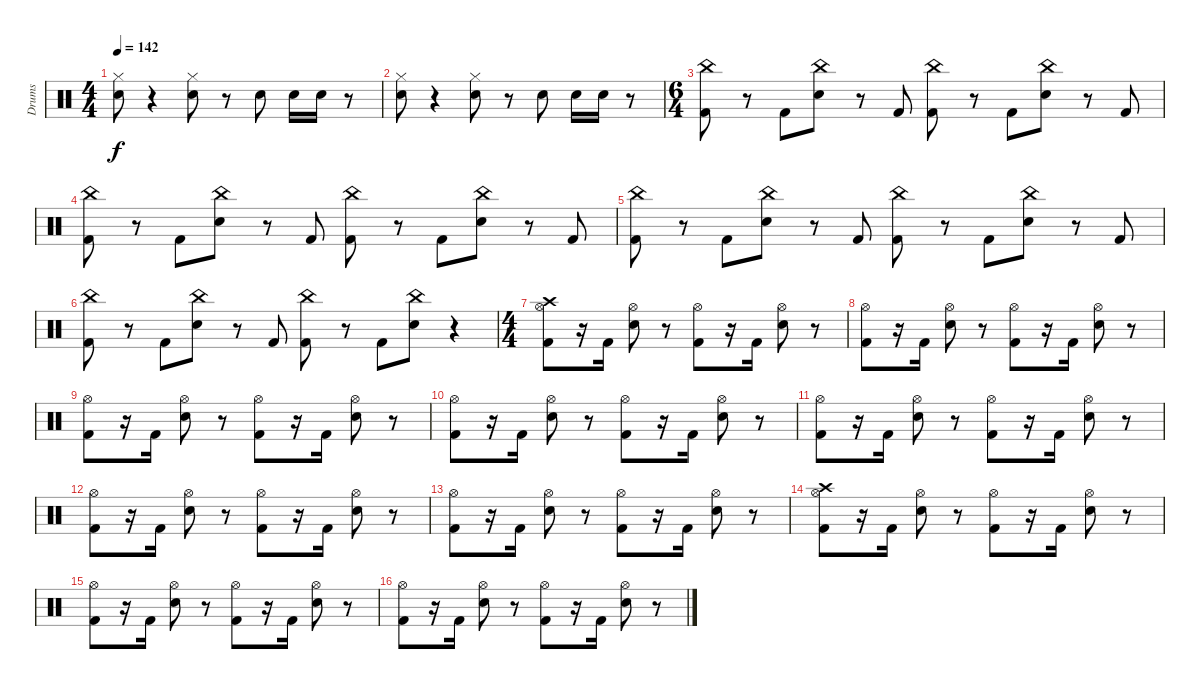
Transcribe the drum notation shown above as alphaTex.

\track ("Drums" "Drums") {instrument percussion}
\staff {score}
\articulation defaults
\ts (4 4)
\tempo 142
\clef neutral
\ks c
("Snare (hit) 2" "Hi-Hat (closed)").8{dy f} r.4 ("Snare (hit) 2" "Hi-Hat (closed)").8 r.8 "Snare (hit) 2".8 "Snare (hit) 2".16 "Snare (hit) 2".16 r.8 |
("Snare (hit) 2" "Hi-Hat (closed)").8 r.4 ("Snare (hit) 2" "Hi-Hat (closed)").8 r.8 "Snare (hit) 2".8 "Snare (hit) 2".16 "Snare (hit) 2".16 r.8 |
\ts (6 4)
("Kick (hit) 2" "China (hit)").8 r.8 "Kick (hit) 2".8 ("Snare (hit) 2" "China (hit)").8 r.8 "Kick (hit) 2".8 ("Kick (hit) 2" "China (hit)").8 r.8 "Kick (hit) 2".8 ("Snare (hit) 2" "China (hit)").8 r.8 "Kick (hit) 2".8 |
("Kick (hit) 2" "China (hit)").8 r.8 "Kick (hit) 2".8 ("Snare (hit) 2" "China (hit)").8 r.8 "Kick (hit) 2".8 ("Kick (hit) 2" "China (hit)").8 r.8 "Kick (hit) 2".8 ("Snare (hit) 2" "China (hit)").8 r.8 "Kick (hit) 2".8 |
("Kick (hit) 2" "China (hit)").8 r.8 "Kick (hit) 2".8 ("Snare (hit) 2" "China (hit)").8 r.8 "Kick (hit) 2".8 ("Kick (hit) 2" "China (hit)").8 r.8 "Kick (hit) 2".8 ("Snare (hit) 2" "China (hit)").8 r.8 "Kick (hit) 2".8 |
("Kick (hit) 2" "China (hit)").8 r.8 "Kick (hit) 2".8 ("Snare (hit) 2" "China (hit)").8 r.8 "Kick (hit) 2".8 ("Kick (hit) 2" "China (hit)").8 r.8 "Kick (hit) 2".8 ("Snare (hit) 2" "China (hit)").8 r.4 |
\ts (4 4)
("Kick (hit) 2" "Hi-Hat (open)" "Crash high (hit)").8 r.16 "Kick (hit) 2".16 ("Snare (hit) 2" "Hi-Hat (open)").8 r.8 ("Kick (hit) 2" "Hi-Hat (open)").8 r.16 "Kick (hit) 2".16 ("Snare (hit) 2" "Hi-Hat (open)").8 r.8 |
("Kick (hit) 2" "Hi-Hat (open)").8 r.16 "Kick (hit) 2".16 ("Snare (hit) 2" "Hi-Hat (open)").8 r.8 ("Kick (hit) 2" "Hi-Hat (open)").8 r.16 "Kick (hit) 2".16 ("Snare (hit) 2" "Hi-Hat (open)").8 r.8 |
("Kick (hit) 2" "Hi-Hat (open)").8 r.16 "Kick (hit) 2".16 ("Snare (hit) 2" "Hi-Hat (open)").8 r.8 ("Kick (hit) 2" "Hi-Hat (open)").8 r.16 "Kick (hit) 2".16 ("Snare (hit) 2" "Hi-Hat (open)").8 r.8 |
("Kick (hit) 2" "Hi-Hat (open)").8 r.16 "Kick (hit) 2".16 ("Snare (hit) 2" "Hi-Hat (open)").8 r.8 ("Kick (hit) 2" "Hi-Hat (open)").8 r.16 "Kick (hit) 2".16 ("Snare (hit) 2" "Hi-Hat (open)").8 r.8 |
("Kick (hit) 2" "Hi-Hat (open)").8 r.16 "Kick (hit) 2".16 ("Snare (hit) 2" "Hi-Hat (open)").8 r.8 ("Kick (hit) 2" "Hi-Hat (open)").8 r.16 "Kick (hit) 2".16 ("Snare (hit) 2" "Hi-Hat (open)").8 r.8 |
("Kick (hit) 2" "Hi-Hat (open)").8 r.16 "Kick (hit) 2".16 ("Snare (hit) 2" "Hi-Hat (open)").8 r.8 ("Kick (hit) 2" "Hi-Hat (open)").8 r.16 "Kick (hit) 2".16 ("Snare (hit) 2" "Hi-Hat (open)").8 r.8 |
("Kick (hit) 2" "Hi-Hat (open)").8 r.16 "Kick (hit) 2".16 ("Snare (hit) 2" "Hi-Hat (open)").8 r.8 ("Kick (hit) 2" "Hi-Hat (open)").8 r.16 "Kick (hit) 2".16 ("Snare (hit) 2" "Hi-Hat (open)").8 r.8 |
("Kick (hit) 2" "Hi-Hat (open)" "Crash high (hit)").8 r.16 "Kick (hit) 2".16 ("Snare (hit) 2" "Hi-Hat (open)").8 r.8 ("Kick (hit) 2" "Hi-Hat (open)").8 r.16 "Kick (hit) 2".16 ("Snare (hit) 2" "Hi-Hat (open)").8 r.8 |
("Kick (hit) 2" "Hi-Hat (open)").8 r.16 "Kick (hit) 2".16 ("Snare (hit) 2" "Hi-Hat (open)").8 r.8 ("Kick (hit) 2" "Hi-Hat (open)").8 r.16 "Kick (hit) 2".16 ("Snare (hit) 2" "Hi-Hat (open)").8 r.8 |
("Kick (hit) 2" "Hi-Hat (open)").8 r.16 "Kick (hit) 2".16 ("Snare (hit) 2" "Hi-Hat (open)").8 r.8 ("Kick (hit) 2" "Hi-Hat (open)").8 r.16 "Kick (hit) 2".16 ("Snare (hit) 2" "Hi-Hat (open)").8 r.8
